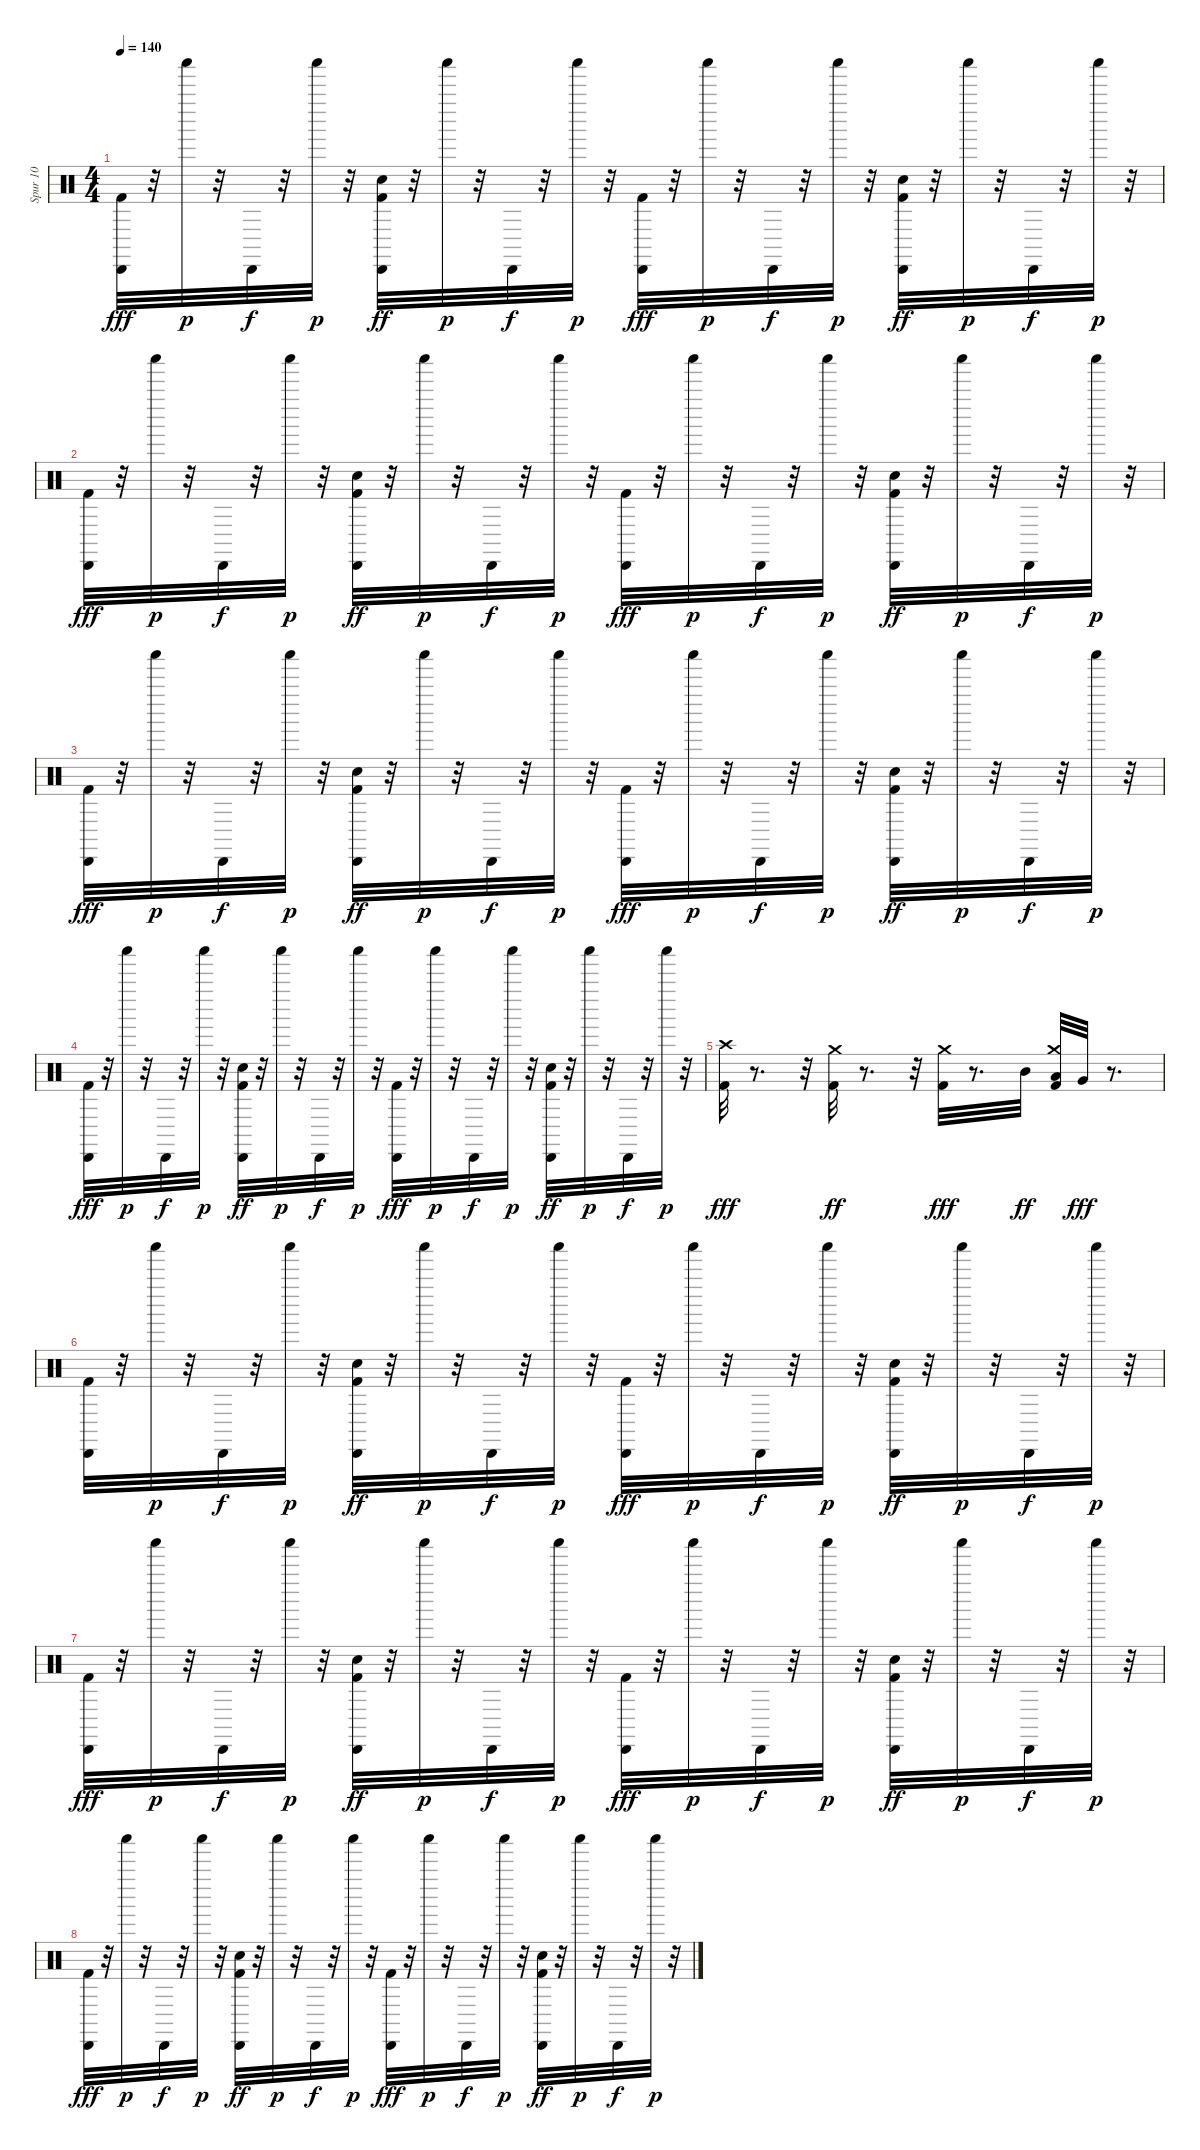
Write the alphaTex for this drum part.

\track ("Spur 10" "Spur 10") {instrument percussion}
\staff {score}
\articulation defaults
\ts (4 4)
\tempo 140
\clef neutral
\ks c
("Cabasa (hit)" "Kick (hit) 2").32{dy fff} r.32 "Shaker (hit)".32{dy p} r.32 "Cabasa (hit)".32{dy f} r.32 "Shaker (hit)".32{dy p} r.32 ("Snare (hit) 2" "Cabasa (hit)" "Kick (hit) 2").32{dy ff} r.32 "Shaker (hit)".32{dy p} r.32 "Cabasa (hit)".32{dy f} r.32 "Shaker (hit)".32{dy p} r.32 ("Cabasa (hit)" "Kick (hit) 2").32{dy fff} r.32 "Shaker (hit)".32{dy p} r.32 "Cabasa (hit)".32{dy f} r.32 "Shaker (hit)".32{dy p} r.32 ("Snare (hit) 2" "Cabasa (hit)" "Kick (hit) 2").32{dy ff} r.32 "Shaker (hit)".32{dy p} r.32 "Cabasa (hit)".32{dy f} r.32 "Shaker (hit)".32{dy p} r.32 |
("Cabasa (hit)" "Kick (hit) 2").32{dy fff} r.32 "Shaker (hit)".32{dy p} r.32 "Cabasa (hit)".32{dy f} r.32 "Shaker (hit)".32{dy p} r.32 ("Snare (hit) 2" "Cabasa (hit)" "Kick (hit) 2").32{dy ff} r.32 "Shaker (hit)".32{dy p} r.32 "Cabasa (hit)".32{dy f} r.32 "Shaker (hit)".32{dy p} r.32 ("Cabasa (hit)" "Kick (hit) 2").32{dy fff} r.32 "Shaker (hit)".32{dy p} r.32 "Cabasa (hit)".32{dy f} r.32 "Shaker (hit)".32{dy p} r.32 ("Snare (hit) 2" "Cabasa (hit)" "Kick (hit) 2").32{dy ff} r.32 "Shaker (hit)".32{dy p} r.32 "Cabasa (hit)".32{dy f} r.32 "Shaker (hit)".32{dy p} r.32 |
("Cabasa (hit)" "Kick (hit) 2").32{dy fff} r.32 "Shaker (hit)".32{dy p} r.32 "Cabasa (hit)".32{dy f} r.32 "Shaker (hit)".32{dy p} r.32 ("Snare (hit) 2" "Cabasa (hit)" "Kick (hit) 2").32{dy ff} r.32 "Shaker (hit)".32{dy p} r.32 "Cabasa (hit)".32{dy f} r.32 "Shaker (hit)".32{dy p} r.32 ("Cabasa (hit)" "Kick (hit) 2").32{dy fff} r.32 "Shaker (hit)".32{dy p} r.32 "Cabasa (hit)".32{dy f} r.32 "Shaker (hit)".32{dy p} r.32 ("Snare (hit) 2" "Cabasa (hit)" "Kick (hit) 2").32{dy ff} r.32 "Shaker (hit)".32{dy p} r.32 "Cabasa (hit)".32{dy f} r.32 "Shaker (hit)".32{dy p} r.32 |
("Cabasa (hit)" "Kick (hit) 2").32{dy fff} r.32 "Shaker (hit)".32{dy p} r.32 "Cabasa (hit)".32{dy f} r.32 "Shaker (hit)".32{dy p} r.32 ("Snare (hit) 2" "Cabasa (hit)" "Kick (hit) 2").32{dy ff} r.32 "Shaker (hit)".32{dy p} r.32 "Cabasa (hit)".32{dy f} r.32 "Shaker (hit)".32{dy p} r.32 ("Cabasa (hit)" "Kick (hit) 2").32{dy fff} r.32 "Shaker (hit)".32{dy p} r.32 "Cabasa (hit)".32{dy f} r.32 "Shaker (hit)".32{dy p} r.32 ("Snare (hit) 2" "Cabasa (hit)" "Kick (hit) 2").32{dy ff} r.32 "Shaker (hit)".32{dy p} r.32 "Cabasa (hit)".32{dy f} r.32 "Shaker (hit)".32{dy p} r.32 |
("Crash high (hit)" "Kick (hit) 2").32{dy fff} r.8{d} r.32 ("Crash medium (hit)" "Kick (hit) 2").32{dy ff} r.8{d} r.32 ("Crash medium (hit)" "Kick (hit) 2").32{dy fff} r.8{d} "Mid Tom (hit)".32{dy ff} ("Low Tom (hit)" "Crash medium (hit)" "Kick (hit) 2").32 "Very Low Tom (hit)".32{dy fff} r.8{d} |
("Cabasa (hit)" "Kick (hit) 2").32 r.32 "Shaker (hit)".32{dy p} r.32 "Cabasa (hit)".32{dy f} r.32 "Shaker (hit)".32{dy p} r.32 ("Snare (hit) 2" "Cabasa (hit)" "Kick (hit) 2").32{dy ff} r.32 "Shaker (hit)".32{dy p} r.32 "Cabasa (hit)".32{dy f} r.32 "Shaker (hit)".32{dy p} r.32 ("Cabasa (hit)" "Kick (hit) 2").32{dy fff} r.32 "Shaker (hit)".32{dy p} r.32 "Cabasa (hit)".32{dy f} r.32 "Shaker (hit)".32{dy p} r.32 ("Snare (hit) 2" "Cabasa (hit)" "Kick (hit) 2").32{dy ff} r.32 "Shaker (hit)".32{dy p} r.32 "Cabasa (hit)".32{dy f} r.32 "Shaker (hit)".32{dy p} r.32 |
("Cabasa (hit)" "Kick (hit) 2").32{dy fff} r.32 "Shaker (hit)".32{dy p} r.32 "Cabasa (hit)".32{dy f} r.32 "Shaker (hit)".32{dy p} r.32 ("Snare (hit) 2" "Cabasa (hit)" "Kick (hit) 2").32{dy ff} r.32 "Shaker (hit)".32{dy p} r.32 "Cabasa (hit)".32{dy f} r.32 "Shaker (hit)".32{dy p} r.32 ("Cabasa (hit)" "Kick (hit) 2").32{dy fff} r.32 "Shaker (hit)".32{dy p} r.32 "Cabasa (hit)".32{dy f} r.32 "Shaker (hit)".32{dy p} r.32 ("Snare (hit) 2" "Cabasa (hit)" "Kick (hit) 2").32{dy ff} r.32 "Shaker (hit)".32{dy p} r.32 "Cabasa (hit)".32{dy f} r.32 "Shaker (hit)".32{dy p} r.32 |
("Cabasa (hit)" "Kick (hit) 2").32{dy fff} r.32 "Shaker (hit)".32{dy p} r.32 "Cabasa (hit)".32{dy f} r.32 "Shaker (hit)".32{dy p} r.32 ("Snare (hit) 2" "Cabasa (hit)" "Kick (hit) 2").32{dy ff} r.32 "Shaker (hit)".32{dy p} r.32 "Cabasa (hit)".32{dy f} r.32 "Shaker (hit)".32{dy p} r.32 ("Cabasa (hit)" "Kick (hit) 2").32{dy fff} r.32 "Shaker (hit)".32{dy p} r.32 "Cabasa (hit)".32{dy f} r.32 "Shaker (hit)".32{dy p} r.32 ("Snare (hit) 2" "Cabasa (hit)" "Kick (hit) 2").32{dy ff} r.32 "Shaker (hit)".32{dy p} r.32 "Cabasa (hit)".32{dy f} r.32 "Shaker (hit)".32{dy p} r.32
